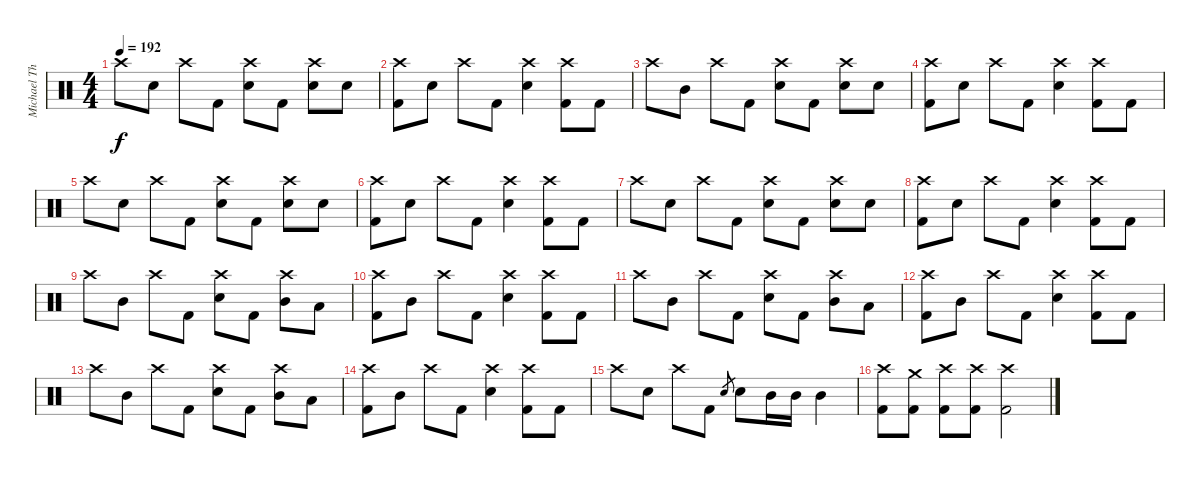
\track ("Michael Thomas (Drums)" "Michael Th") {instrument percussion}
\staff {score}
\articulation defaults
\ts (4 4)
\tempo 192
\clef neutral
\ks c "Crash high (hit)".8{dy f} "Snare (hit) 2".8 "Crash high (hit)".8 "Kick (hit) 2".8
("Crash high (hit)" "Snare (hit) 2").8 "Kick (hit) 2".8 ("Crash high (hit)" "Snare (hit) 2").8 "Snare (hit) 2".8 |
("Crash high (hit)" "Kick (hit) 2").8 "Snare (hit) 2".8 "Crash high (hit)".8 "Kick (hit) 2".8 ("Crash high (hit)" "Snare (hit) 2").4 ("Crash high (hit)" "Kick (hit) 2").8 "Kick (hit) 2".8 |
"Crash high (hit)".8 "Mid Tom (hit)".8 "Crash high (hit)".8 "Kick (hit) 2".8 ("Crash high (hit)" "Snare (hit) 2").8 "Kick (hit) 2".8 ("Crash high (hit)" "Snare (hit) 2").8 "Snare (hit) 2".8 |
("Crash high (hit)" "Kick (hit) 2").8 "Snare (hit) 2".8 "Crash high (hit)".8 "Kick (hit) 2".8 ("Crash high (hit)" "Snare (hit) 2").4 ("Crash high (hit)" "Kick (hit) 2").8 "Kick (hit) 2".8 |
"Crash high (hit)".8 "Snare (hit) 2".8 "Crash high (hit)".8 "Kick (hit) 2".8 ("Crash high (hit)" "Snare (hit) 2").8 "Kick (hit) 2".8 ("Crash high (hit)" "Snare (hit) 2").8 "Snare (hit) 2".8 |
("Crash high (hit)" "Kick (hit) 2").8 "Snare (hit) 2".8 "Crash high (hit)".8 "Kick (hit) 2".8 ("Crash high (hit)" "Snare (hit) 2").4 ("Crash high (hit)" "Kick (hit) 2").8 "Kick (hit) 2".8 |
"Crash high (hit)".8 "Snare (hit) 2".8 "Crash high (hit)".8 "Kick (hit) 2".8 ("Crash high (hit)" "Snare (hit) 2").8 "Kick (hit) 2".8 ("Crash high (hit)" "Snare (hit) 2").8 "Snare (hit) 2".8 |
("Crash high (hit)" "Kick (hit) 2").8 "Snare (hit) 2".8 "Crash high (hit)".8 "Kick (hit) 2".8 ("Crash high (hit)" "Snare (hit) 2").4 ("Crash high (hit)" "Kick (hit) 2").8 "Kick (hit) 2".8 |
"Crash high (hit)".8 "Mid Tom (hit)".8 "Crash high (hit)".8 "Kick (hit) 2".8 ("Crash high (hit)" "Snare (hit) 2").8 "Kick (hit) 2".8 ("Crash high (hit)" "Mid Tom (hit)").8 "Low Tom (hit)".8 |
("Crash high (hit)" "Kick (hit) 2").8 "Mid Tom (hit)".8 "Crash high (hit)".8 "Kick (hit) 2".8 ("Crash high (hit)" "Snare (hit) 2").4 ("Crash high (hit)" "Kick (hit) 2").8 "Kick (hit) 2".8 |
"Crash high (hit)".8 "Mid Tom (hit)".8 "Crash high (hit)".8 "Kick (hit) 2".8 ("Crash high (hit)" "Snare (hit) 2").8 "Kick (hit) 2".8 ("Crash high (hit)" "Mid Tom (hit)").8 "Low Tom (hit)".8 |
("Crash high (hit)" "Kick (hit) 2").8 "Mid Tom (hit)".8 "Crash high (hit)".8 "Kick (hit) 2".8 ("Crash high (hit)" "Snare (hit) 2").4 ("Crash high (hit)" "Kick (hit) 2").8 "Kick (hit) 2".8 |
"Crash high (hit)".8 "Mid Tom (hit)".8 "Crash high (hit)".8 "Kick (hit) 2".8 ("Crash high (hit)" "Snare (hit) 2").8 "Kick (hit) 2".8 ("Crash high (hit)" "Mid Tom (hit)").8 "Low Tom (hit)".8 |
("Crash high (hit)" "Kick (hit) 2").8 "Mid Tom (hit)".8 "Crash high (hit)".8 "Kick (hit) 2".8 ("Crash high (hit)" "Snare (hit) 2").4 ("Crash high (hit)" "Kick (hit) 2").8 "Kick (hit) 2".8 |
"Crash high (hit)".8 "Snare (hit) 2".8 "Crash high (hit)".8 "Kick (hit) 2".8 "Snare (hit) 2".8{gr} "Snare (hit) 2".8 "Mid Tom (hit)".16 "Mid Tom (hit)".16 "Mid Tom (hit)".4 |
("Crash high (hit)" "Kick (hit) 2").8 ("Crash medium (hit)" "Kick (hit) 2").8 ("Crash high (hit)" "Kick (hit) 2").8 ("Crash high (hit)" "Kick (hit) 2").8 ("Crash high (hit)" "Kick (hit) 2").2
